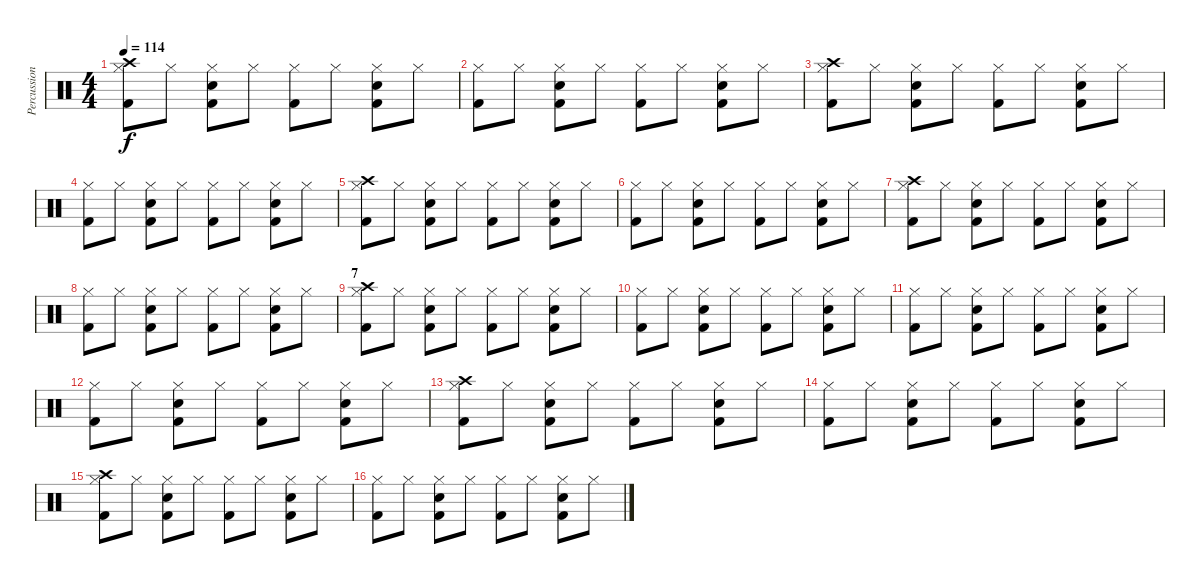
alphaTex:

\track ("Percussions" "Percussion") {instrument percussion}
\staff {score}
\articulation defaults
\ts (4 4)
\tempo 114
\clef neutral
\ks c
("Kick (hit) 2" "Hi-Hat (closed)" "Crash high (hit)").8{dy f} "Hi-Hat (closed)".8 ("Kick (hit) 2" "Hi-Hat (closed)" "Snare (hit) 2").8 "Hi-Hat (closed)".8 ("Kick (hit) 2" "Hi-Hat (closed)").8 "Hi-Hat (closed)".8 ("Kick (hit) 2" "Hi-Hat (closed)" "Snare (hit) 2").8 "Hi-Hat (closed)".8 |
("Kick (hit) 2" "Hi-Hat (closed)").8 "Hi-Hat (closed)".8 ("Kick (hit) 2" "Hi-Hat (closed)" "Snare (hit) 2").8 "Hi-Hat (closed)".8 ("Kick (hit) 2" "Hi-Hat (closed)").8 "Hi-Hat (closed)".8 ("Kick (hit) 2" "Hi-Hat (closed)" "Snare (hit) 2").8 "Hi-Hat (closed)".8 |
("Kick (hit) 2" "Hi-Hat (closed)" "Crash high (hit)").8 "Hi-Hat (closed)".8 ("Kick (hit) 2" "Hi-Hat (closed)" "Snare (hit) 2").8 "Hi-Hat (closed)".8 ("Kick (hit) 2" "Hi-Hat (closed)").8 "Hi-Hat (closed)".8 ("Kick (hit) 2" "Hi-Hat (closed)" "Snare (hit) 2").8 "Hi-Hat (closed)".8 |
("Kick (hit) 2" "Hi-Hat (closed)").8 "Hi-Hat (closed)".8 ("Kick (hit) 2" "Hi-Hat (closed)" "Snare (hit) 2").8 "Hi-Hat (closed)".8 ("Kick (hit) 2" "Hi-Hat (closed)").8 "Hi-Hat (closed)".8 ("Kick (hit) 2" "Hi-Hat (closed)" "Snare (hit) 2").8 "Hi-Hat (closed)".8 |
("Kick (hit) 2" "Hi-Hat (closed)" "Crash high (hit)").8 "Hi-Hat (closed)".8 ("Kick (hit) 2" "Hi-Hat (closed)" "Snare (hit) 2").8 "Hi-Hat (closed)".8 ("Kick (hit) 2" "Hi-Hat (closed)").8 "Hi-Hat (closed)".8 ("Kick (hit) 2" "Hi-Hat (closed)" "Snare (hit) 2").8 "Hi-Hat (closed)".8 |
("Kick (hit) 2" "Hi-Hat (closed)").8 "Hi-Hat (closed)".8 ("Kick (hit) 2" "Hi-Hat (closed)" "Snare (hit) 2").8 "Hi-Hat (closed)".8 ("Kick (hit) 2" "Hi-Hat (closed)").8 "Hi-Hat (closed)".8 ("Kick (hit) 2" "Hi-Hat (closed)" "Snare (hit) 2").8 "Hi-Hat (closed)".8 |
("Kick (hit) 2" "Hi-Hat (closed)" "Crash high (hit)").8 "Hi-Hat (closed)".8 ("Kick (hit) 2" "Hi-Hat (closed)" "Snare (hit) 2").8 "Hi-Hat (closed)".8 ("Kick (hit) 2" "Hi-Hat (closed)").8 "Hi-Hat (closed)".8 ("Kick (hit) 2" "Hi-Hat (closed)" "Snare (hit) 2").8 "Hi-Hat (closed)".8 |
("Kick (hit) 2" "Hi-Hat (closed)").8 "Hi-Hat (closed)".8 ("Kick (hit) 2" "Hi-Hat (closed)" "Snare (hit) 2").8 "Hi-Hat (closed)".8 ("Kick (hit) 2" "Hi-Hat (closed)").8 "Hi-Hat (closed)".8 ("Kick (hit) 2" "Hi-Hat (closed)" "Snare (hit) 2").8 "Hi-Hat (closed)".8 |
\section ("" "7")
("Kick (hit) 2" "Hi-Hat (closed)" "Crash high (hit)").8 "Hi-Hat (closed)".8 ("Kick (hit) 2" "Hi-Hat (closed)" "Snare (hit) 2").8 "Hi-Hat (closed)".8 ("Kick (hit) 2" "Hi-Hat (closed)").8 "Hi-Hat (closed)".8 ("Kick (hit) 2" "Hi-Hat (closed)" "Snare (hit) 2").8 "Hi-Hat (closed)".8 |
("Kick (hit) 2" "Hi-Hat (closed)").8 "Hi-Hat (closed)".8 ("Kick (hit) 2" "Hi-Hat (closed)" "Snare (hit) 2").8 "Hi-Hat (closed)".8 ("Kick (hit) 2" "Hi-Hat (closed)").8 "Hi-Hat (closed)".8 ("Kick (hit) 2" "Hi-Hat (closed)" "Snare (hit) 2").8 "Hi-Hat (closed)".8 |
("Kick (hit) 2" "Hi-Hat (closed)").8 "Hi-Hat (closed)".8 ("Kick (hit) 2" "Hi-Hat (closed)" "Snare (hit) 2").8 "Hi-Hat (closed)".8 ("Kick (hit) 2" "Hi-Hat (closed)").8 "Hi-Hat (closed)".8 ("Kick (hit) 2" "Hi-Hat (closed)" "Snare (hit) 2").8 "Hi-Hat (closed)".8 |
("Kick (hit) 2" "Hi-Hat (closed)").8 "Hi-Hat (closed)".8 ("Kick (hit) 2" "Hi-Hat (closed)" "Snare (hit) 2").8 "Hi-Hat (closed)".8 ("Kick (hit) 2" "Hi-Hat (closed)").8 "Hi-Hat (closed)".8 ("Kick (hit) 2" "Hi-Hat (closed)" "Snare (hit) 2").8 "Hi-Hat (closed)".8 |
("Kick (hit) 2" "Hi-Hat (closed)" "Crash high (hit)").8 "Hi-Hat (closed)".8 ("Kick (hit) 2" "Hi-Hat (closed)" "Snare (hit) 2").8 "Hi-Hat (closed)".8 ("Kick (hit) 2" "Hi-Hat (closed)").8 "Hi-Hat (closed)".8 ("Kick (hit) 2" "Hi-Hat (closed)" "Snare (hit) 2").8 "Hi-Hat (closed)".8 |
("Kick (hit) 2" "Hi-Hat (closed)").8 "Hi-Hat (closed)".8 ("Kick (hit) 2" "Hi-Hat (closed)" "Snare (hit) 2").8 "Hi-Hat (closed)".8 ("Kick (hit) 2" "Hi-Hat (closed)").8 "Hi-Hat (closed)".8 ("Kick (hit) 2" "Hi-Hat (closed)" "Snare (hit) 2").8 "Hi-Hat (closed)".8 |
("Kick (hit) 2" "Hi-Hat (closed)" "Crash high (hit)").8 "Hi-Hat (closed)".8 ("Kick (hit) 2" "Hi-Hat (closed)" "Snare (hit) 2").8 "Hi-Hat (closed)".8 ("Kick (hit) 2" "Hi-Hat (closed)").8 "Hi-Hat (closed)".8 ("Kick (hit) 2" "Hi-Hat (closed)" "Snare (hit) 2").8 "Hi-Hat (closed)".8 |
("Kick (hit) 2" "Hi-Hat (closed)").8 "Hi-Hat (closed)".8 ("Kick (hit) 2" "Hi-Hat (closed)" "Snare (hit) 2").8 "Hi-Hat (closed)".8 ("Kick (hit) 2" "Hi-Hat (closed)").8 "Hi-Hat (closed)".8 ("Kick (hit) 2" "Hi-Hat (closed)" "Snare (hit) 2").8 "Hi-Hat (closed)".8
